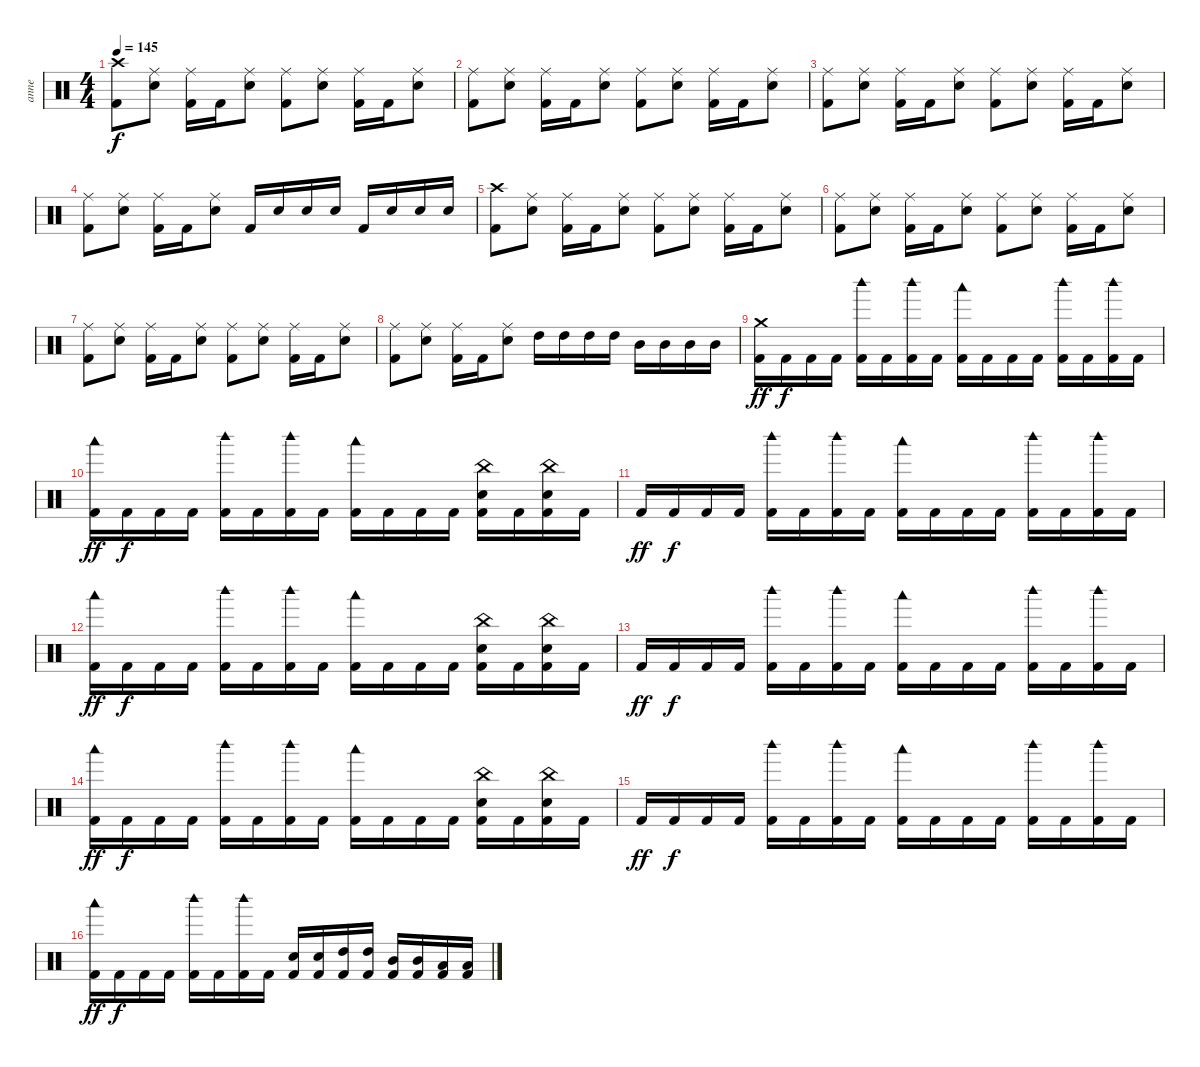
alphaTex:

\track ("anne" "anne") {instrument percussion}
\staff {score}
\articulation defaults
\ts (4 4)
\tempo 145
\clef neutral
\ks c
("Kick (hit) 2" "Crash high (hit)").8{dy f} ("Snare (hit) 2" "Ride (middle)").8 ("Kick (hit) 2" "Ride (middle)").16 "Kick (hit) 2".16 ("Snare (hit) 2" "Ride (middle)").8 ("Kick (hit) 2" "Ride (middle)").8 ("Snare (hit) 2" "Ride (middle)").8 ("Kick (hit) 2" "Ride (middle)").16 "Kick (hit) 2".16 ("Snare (hit) 2" "Ride (middle)").8 |
("Kick (hit) 2" "Ride (middle)").8 ("Snare (hit) 2" "Ride (middle)").8 ("Kick (hit) 2" "Ride (middle)").16 "Kick (hit) 2".16 ("Snare (hit) 2" "Ride (middle)").8 ("Kick (hit) 2" "Ride (middle)").8 ("Snare (hit) 2" "Ride (middle)").8 ("Kick (hit) 2" "Ride (middle)").16 "Kick (hit) 2".16 ("Snare (hit) 2" "Ride (middle)").8 |
("Kick (hit) 2" "Ride (middle)").8 ("Snare (hit) 2" "Ride (middle)").8 ("Kick (hit) 2" "Ride (middle)").16 "Kick (hit) 2".16 ("Snare (hit) 2" "Ride (middle)").8 ("Kick (hit) 2" "Ride (middle)").8 ("Snare (hit) 2" "Ride (middle)").8 ("Kick (hit) 2" "Ride (middle)").16 "Kick (hit) 2".16 ("Snare (hit) 2" "Ride (middle)").8 |
("Ride (middle)" "Kick (hit) 2").8 ("Ride (middle)" "Snare (hit) 2").8 ("Ride (middle)" "Kick (hit) 2").16 "Kick (hit) 2".16 ("Ride (middle)" "Snare (hit) 2").8 "Kick (hit) 2".16 "Snare (hit) 2".16 "Snare (hit) 2".16 "Snare (hit) 2".16 "Kick (hit) 2".16 "Snare (hit) 2".16 "Snare (hit) 2".16 "Snare (hit) 2".16 |
("Kick (hit) 2" "Crash high (hit)").8 ("Snare (hit) 2" "Ride (middle)").8 ("Kick (hit) 2" "Ride (middle)").16 "Kick (hit) 2".16 ("Snare (hit) 2" "Ride (middle)").8 ("Kick (hit) 2" "Ride (middle)").8 ("Snare (hit) 2" "Ride (middle)").8 ("Kick (hit) 2" "Ride (middle)").16 "Kick (hit) 2".16 ("Snare (hit) 2" "Ride (middle)").8 |
("Kick (hit) 2" "Ride (middle)").8 ("Snare (hit) 2" "Ride (middle)").8 ("Kick (hit) 2" "Ride (middle)").16 "Kick (hit) 2".16 ("Snare (hit) 2" "Ride (middle)").8 ("Kick (hit) 2" "Ride (middle)").8 ("Snare (hit) 2" "Ride (middle)").8 ("Kick (hit) 2" "Ride (middle)").16 "Kick (hit) 2".16 ("Snare (hit) 2" "Ride (middle)").8 |
("Kick (hit) 2" "Ride (middle)").8 ("Snare (hit) 2" "Ride (middle)").8 ("Kick (hit) 2" "Ride (middle)").16 "Kick (hit) 2".16 ("Snare (hit) 2" "Ride (middle)").8 ("Kick (hit) 2" "Ride (middle)").8 ("Snare (hit) 2" "Ride (middle)").8 ("Kick (hit) 2" "Ride (middle)").16 "Kick (hit) 2".16 ("Snare (hit) 2" "Ride (middle)").8 |
("Ride (middle)" "Kick (hit) 2").8 ("Ride (middle)" "Snare (hit) 2").8 ("Ride (middle)" "Kick (hit) 2").16 "Kick (hit) 2".16 ("Ride (middle)" "Snare (hit) 2").8 "High Tom (hit)".16 "High Tom (hit)".16 "High Tom (hit)".16 "High Tom (hit)".16 "Mid Tom (hit)".16 "Mid Tom (hit)".16 "Mid Tom (hit)".16 "Mid Tom (hit)".16 |
("Crash medium (hit)" "Kick (hit) 2").16{dy ff} "Kick (hit) 2".16{dy f} "Kick (hit) 2".16 "Kick (hit) 2".16 ("Kick (hit) 2" "Woodblock high (hit)").16 "Kick (hit) 2".16 ("Kick (hit) 2" "Woodblock high (hit)").16 "Kick (hit) 2".16 ("Kick (hit) 2" "Woodblock low (hit)").16 "Kick (hit) 2".16 "Kick (hit) 2".16 "Kick (hit) 2".16 ("Kick (hit) 2" "Woodblock high (hit)").16 "Kick (hit) 2".16 ("Kick (hit) 2" "Woodblock high (hit)").16 "Kick (hit) 2".16 |
("Woodblock low (hit)" "Kick (hit) 2").16{dy ff} "Kick (hit) 2".16{dy f} "Kick (hit) 2".16 "Kick (hit) 2".16 ("Kick (hit) 2" "Woodblock high (hit)").16 "Kick (hit) 2".16 ("Kick (hit) 2" "Woodblock high (hit)").16 "Kick (hit) 2".16 ("Kick (hit) 2" "Woodblock low (hit)").16 "Kick (hit) 2".16 "Kick (hit) 2".16 "Kick (hit) 2".16 ("Kick (hit) 2" "Electric Snare (hit)" "China (hit)").16 "Kick (hit) 2".16 ("Kick (hit) 2" "Electric Snare (hit)" "China (hit)").16 "Kick (hit) 2".16 |
"Kick (hit) 2".16{dy ff} "Kick (hit) 2".16{dy f} "Kick (hit) 2".16 "Kick (hit) 2".16 ("Kick (hit) 2" "Woodblock high (hit)").16 "Kick (hit) 2".16 ("Kick (hit) 2" "Woodblock high (hit)").16 "Kick (hit) 2".16 ("Kick (hit) 2" "Woodblock low (hit)").16 "Kick (hit) 2".16 "Kick (hit) 2".16 "Kick (hit) 2".16 ("Kick (hit) 2" "Woodblock high (hit)").16 "Kick (hit) 2".16 ("Kick (hit) 2" "Woodblock high (hit)").16 "Kick (hit) 2".16 |
("Woodblock low (hit)" "Kick (hit) 2").16{dy ff} "Kick (hit) 2".16{dy f} "Kick (hit) 2".16 "Kick (hit) 2".16 ("Kick (hit) 2" "Woodblock high (hit)").16 "Kick (hit) 2".16 ("Kick (hit) 2" "Woodblock high (hit)").16 "Kick (hit) 2".16 ("Kick (hit) 2" "Woodblock low (hit)").16 "Kick (hit) 2".16 "Kick (hit) 2".16 "Kick (hit) 2".16 ("Kick (hit) 2" "Electric Snare (hit)" "China (hit)").16 "Kick (hit) 2".16 ("Kick (hit) 2" "Electric Snare (hit)" "China (hit)").16 "Kick (hit) 2".16 |
"Kick (hit) 2".16{dy ff} "Kick (hit) 2".16{dy f} "Kick (hit) 2".16 "Kick (hit) 2".16 ("Kick (hit) 2" "Woodblock high (hit)").16 "Kick (hit) 2".16 ("Kick (hit) 2" "Woodblock high (hit)").16 "Kick (hit) 2".16 ("Kick (hit) 2" "Woodblock low (hit)").16 "Kick (hit) 2".16 "Kick (hit) 2".16 "Kick (hit) 2".16 ("Kick (hit) 2" "Woodblock high (hit)").16 "Kick (hit) 2".16 ("Kick (hit) 2" "Woodblock high (hit)").16 "Kick (hit) 2".16 |
("Woodblock low (hit)" "Kick (hit) 2").16{dy ff} "Kick (hit) 2".16{dy f} "Kick (hit) 2".16 "Kick (hit) 2".16 ("Kick (hit) 2" "Woodblock high (hit)").16 "Kick (hit) 2".16 ("Kick (hit) 2" "Woodblock high (hit)").16 "Kick (hit) 2".16 ("Kick (hit) 2" "Woodblock low (hit)").16 "Kick (hit) 2".16 "Kick (hit) 2".16 "Kick (hit) 2".16 ("Kick (hit) 2" "Electric Snare (hit)" "China (hit)").16 "Kick (hit) 2".16 ("Kick (hit) 2" "Electric Snare (hit)" "China (hit)").16 "Kick (hit) 2".16 |
"Kick (hit) 2".16{dy ff} "Kick (hit) 2".16{dy f} "Kick (hit) 2".16 "Kick (hit) 2".16 ("Kick (hit) 2" "Woodblock high (hit)").16 "Kick (hit) 2".16 ("Kick (hit) 2" "Woodblock high (hit)").16 "Kick (hit) 2".16 ("Kick (hit) 2" "Woodblock low (hit)").16 "Kick (hit) 2".16 "Kick (hit) 2".16 "Kick (hit) 2".16 ("Kick (hit) 2" "Woodblock high (hit)").16 "Kick (hit) 2".16 ("Kick (hit) 2" "Woodblock high (hit)").16 "Kick (hit) 2".16 |
("Woodblock low (hit)" "Kick (hit) 2").16{dy ff} "Kick (hit) 2".16{dy f} "Kick (hit) 2".16 "Kick (hit) 2".16 ("Kick (hit) 2" "Woodblock high (hit)").16 "Kick (hit) 2".16 ("Kick (hit) 2" "Woodblock high (hit)").16 "Kick (hit) 2".16 ("Kick (hit) 2" "Snare (hit) 2").16 ("Kick (hit) 2" "Snare (hit) 2").16 ("Kick (hit) 2" "High Tom (hit)").16 ("Kick (hit) 2" "High Tom (hit)").16 ("Kick (hit) 2" "Mid Tom (hit)").16 ("Kick (hit) 2" "Mid Tom (hit)").16 ("Kick (hit) 2" "Low Tom (hit)").16 ("Kick (hit) 2" "Low Tom (hit)").16
